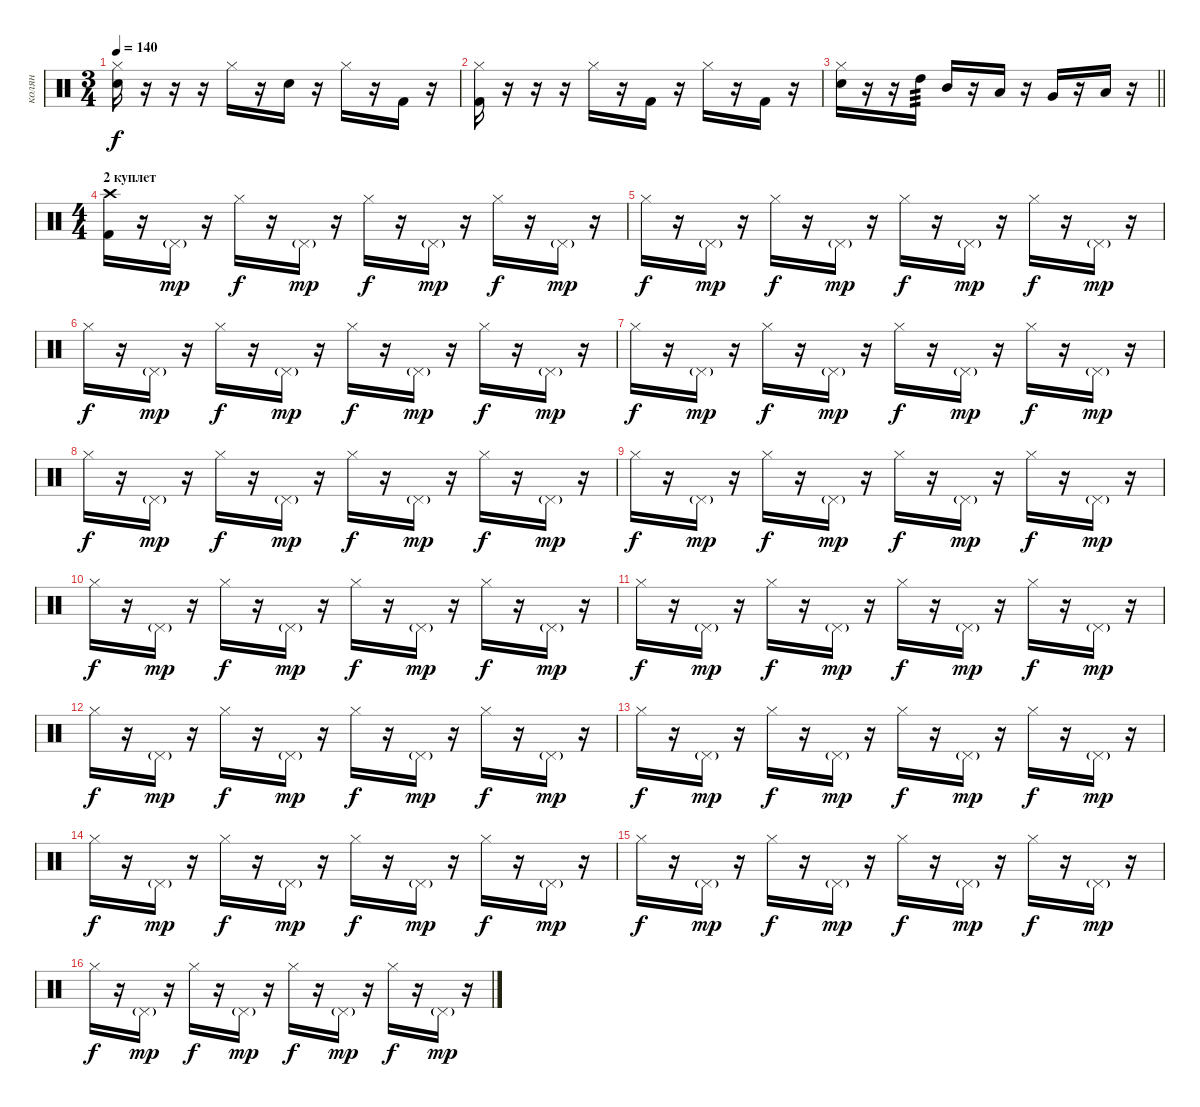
\track ("колян" "колян") {instrument percussion}
\staff {score}
\articulation defaults
\ts (3 4)
\tempo 140
\clef neutral
\ks c
("Snare (hit) 2" "Hi-Hat (closed)").16{dy f} r.16 r.16 r.16 "Hi-Hat (closed)".16 r.16 "Snare (hit) 2".16 r.16 "Hi-Hat (closed)".16 r.16 "Kick (hit) 2".16 r.16 |
("Kick (hit) 2" "Hi-Hat (closed)").16 r.16 r.16 r.16 "Hi-Hat (closed)".16 r.16 "Kick (hit) 2".16 r.16 "Hi-Hat (closed)".16 r.16 "Kick (hit) 2".16 r.16 |
\barLineRight lightlight
("Snare (hit) 2" "Hi-Hat (closed)").16 r.16 r.16 "High Tom (hit)".16{tp 3} "Mid Tom (hit)".16 r.16 "Low Tom (hit)".16 r.16 "Very Low Tom (hit)".16 r.16 "Low Floor Tom (hit)".16 r.16 |
\ts (4 4)
\section ("" "2 куплет")
("Kick (hit) 2" "Crash high (hit)").16 r.16 "Pedal Hi-Hat (hit)"{g}.16{dy mp} r.16 "Hi-Hat (closed)".16{dy f} r.16 "Pedal Hi-Hat (hit)"{g}.16{dy mp} r.16 "Hi-Hat (closed)".16{dy f} r.16 "Pedal Hi-Hat (hit)"{g}.16{dy mp} r.16 "Hi-Hat (closed)".16{dy f} r.16 "Pedal Hi-Hat (hit)"{g}.16{dy mp} r.16 |
"Hi-Hat (closed)".16{dy f} r.16 "Pedal Hi-Hat (hit)"{g}.16{dy mp} r.16 "Hi-Hat (closed)".16{dy f} r.16 "Pedal Hi-Hat (hit)"{g}.16{dy mp} r.16 "Hi-Hat (closed)".16{dy f} r.16 "Pedal Hi-Hat (hit)"{g}.16{dy mp} r.16 "Hi-Hat (closed)".16{dy f} r.16 "Pedal Hi-Hat (hit)"{g}.16{dy mp} r.16 |
"Hi-Hat (closed)".16{dy f} r.16 "Pedal Hi-Hat (hit)"{g}.16{dy mp} r.16 "Hi-Hat (closed)".16{dy f} r.16 "Pedal Hi-Hat (hit)"{g}.16{dy mp} r.16 "Hi-Hat (closed)".16{dy f} r.16 "Pedal Hi-Hat (hit)"{g}.16{dy mp} r.16 "Hi-Hat (closed)".16{dy f} r.16 "Pedal Hi-Hat (hit)"{g}.16{dy mp} r.16 |
"Hi-Hat (closed)".16{dy f} r.16 "Pedal Hi-Hat (hit)"{g}.16{dy mp} r.16 "Hi-Hat (closed)".16{dy f} r.16 "Pedal Hi-Hat (hit)"{g}.16{dy mp} r.16 "Hi-Hat (closed)".16{dy f} r.16 "Pedal Hi-Hat (hit)"{g}.16{dy mp} r.16 "Hi-Hat (closed)".16{dy f} r.16 "Pedal Hi-Hat (hit)"{g}.16{dy mp} r.16 |
"Hi-Hat (closed)".16{dy f} r.16 "Pedal Hi-Hat (hit)"{g}.16{dy mp} r.16 "Hi-Hat (closed)".16{dy f} r.16 "Pedal Hi-Hat (hit)"{g}.16{dy mp} r.16 "Hi-Hat (closed)".16{dy f} r.16 "Pedal Hi-Hat (hit)"{g}.16{dy mp} r.16 "Hi-Hat (closed)".16{dy f} r.16 "Pedal Hi-Hat (hit)"{g}.16{dy mp} r.16 |
"Hi-Hat (closed)".16{dy f} r.16 "Pedal Hi-Hat (hit)"{g}.16{dy mp} r.16 "Hi-Hat (closed)".16{dy f} r.16 "Pedal Hi-Hat (hit)"{g}.16{dy mp} r.16 "Hi-Hat (closed)".16{dy f} r.16 "Pedal Hi-Hat (hit)"{g}.16{dy mp} r.16 "Hi-Hat (closed)".16{dy f} r.16 "Pedal Hi-Hat (hit)"{g}.16{dy mp} r.16 |
"Hi-Hat (closed)".16{dy f} r.16 "Pedal Hi-Hat (hit)"{g}.16{dy mp} r.16 "Hi-Hat (closed)".16{dy f} r.16 "Pedal Hi-Hat (hit)"{g}.16{dy mp} r.16 "Hi-Hat (closed)".16{dy f} r.16 "Pedal Hi-Hat (hit)"{g}.16{dy mp} r.16 "Hi-Hat (closed)".16{dy f} r.16 "Pedal Hi-Hat (hit)"{g}.16{dy mp} r.16 |
"Hi-Hat (closed)".16{dy f} r.16 "Pedal Hi-Hat (hit)"{g}.16{dy mp} r.16 "Hi-Hat (closed)".16{dy f} r.16 "Pedal Hi-Hat (hit)"{g}.16{dy mp} r.16 "Hi-Hat (closed)".16{dy f} r.16 "Pedal Hi-Hat (hit)"{g}.16{dy mp} r.16 "Hi-Hat (closed)".16{dy f} r.16 "Pedal Hi-Hat (hit)"{g}.16{dy mp} r.16 |
"Hi-Hat (closed)".16{dy f} r.16 "Pedal Hi-Hat (hit)"{g}.16{dy mp} r.16 "Hi-Hat (closed)".16{dy f} r.16 "Pedal Hi-Hat (hit)"{g}.16{dy mp} r.16 "Hi-Hat (closed)".16{dy f} r.16 "Pedal Hi-Hat (hit)"{g}.16{dy mp} r.16 "Hi-Hat (closed)".16{dy f} r.16 "Pedal Hi-Hat (hit)"{g}.16{dy mp} r.16 |
"Hi-Hat (closed)".16{dy f} r.16 "Pedal Hi-Hat (hit)"{g}.16{dy mp} r.16 "Hi-Hat (closed)".16{dy f} r.16 "Pedal Hi-Hat (hit)"{g}.16{dy mp} r.16 "Hi-Hat (closed)".16{dy f} r.16 "Pedal Hi-Hat (hit)"{g}.16{dy mp} r.16 "Hi-Hat (closed)".16{dy f} r.16 "Pedal Hi-Hat (hit)"{g}.16{dy mp} r.16 |
"Hi-Hat (closed)".16{dy f} r.16 "Pedal Hi-Hat (hit)"{g}.16{dy mp} r.16 "Hi-Hat (closed)".16{dy f} r.16 "Pedal Hi-Hat (hit)"{g}.16{dy mp} r.16 "Hi-Hat (closed)".16{dy f} r.16 "Pedal Hi-Hat (hit)"{g}.16{dy mp} r.16 "Hi-Hat (closed)".16{dy f} r.16 "Pedal Hi-Hat (hit)"{g}.16{dy mp} r.16 |
"Hi-Hat (closed)".16{dy f} r.16 "Pedal Hi-Hat (hit)"{g}.16{dy mp} r.16 "Hi-Hat (closed)".16{dy f} r.16 "Pedal Hi-Hat (hit)"{g}.16{dy mp} r.16 "Hi-Hat (closed)".16{dy f} r.16 "Pedal Hi-Hat (hit)"{g}.16{dy mp} r.16 "Hi-Hat (closed)".16{dy f} r.16 "Pedal Hi-Hat (hit)"{g}.16{dy mp} r.16 |
"Hi-Hat (closed)".16{dy f} r.16 "Pedal Hi-Hat (hit)"{g}.16{dy mp} r.16 "Hi-Hat (closed)".16{dy f} r.16 "Pedal Hi-Hat (hit)"{g}.16{dy mp} r.16 "Hi-Hat (closed)".16{dy f} r.16 "Pedal Hi-Hat (hit)"{g}.16{dy mp} r.16 "Hi-Hat (closed)".16{dy f} r.16 "Pedal Hi-Hat (hit)"{g}.16{dy mp} r.16
